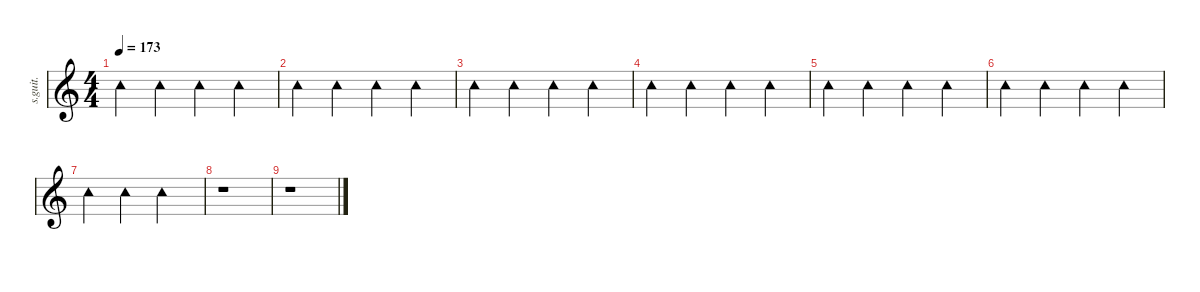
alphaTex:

\defaultSystemsLayout 4
\hideDynamics
\bracketExtendMode nobrackets
\track ("II (Extras)" "s.guit.") {instrument percussion}
\staff {score}
\articulation defaults
\ts (4 4)
\tempo 173
\clef g2
\ks c "Tambourine (hit)".4{lyrics (0 "") lyrics (1 "") lyrics (2 "") lyrics (3 "") lyrics (4 "") dy mf} "Tambourine (hit)".4{lyrics (0 "") lyrics (1 "") lyrics (2 "") lyrics (3 "") lyrics (4 "")} "Tambourine (hit)".4{lyrics (0 "") lyrics (1 "") lyrics (2 "") lyrics (3 "") lyrics (4 "")} "Tambourine (hit)".4{lyrics (0 "") lyrics (1 "") lyrics (2 "") lyrics (3 "") lyrics (4 "")}
|
"Tambourine (hit)".4{lyrics (0 "") lyrics (1 "") lyrics (2 "") lyrics (3 "") lyrics (4 "")} "Tambourine (hit)".4{lyrics (0 "") lyrics (1 "") lyrics (2 "") lyrics (3 "") lyrics (4 "")} "Tambourine (hit)".4{lyrics (0 "") lyrics (1 "") lyrics (2 "") lyrics (3 "") lyrics (4 "")} "Tambourine (hit)".4{lyrics (0 "") lyrics (1 "") lyrics (2 "") lyrics (3 "") lyrics (4 "")} |
"Tambourine (hit)".4{lyrics (0 "") lyrics (1 "") lyrics (2 "") lyrics (3 "") lyrics (4 "")} "Tambourine (hit)".4{lyrics (0 "") lyrics (1 "") lyrics (2 "") lyrics (3 "") lyrics (4 "")} "Tambourine (hit)".4{lyrics (0 "") lyrics (1 "") lyrics (2 "") lyrics (3 "") lyrics (4 "")} "Tambourine (hit)".4{lyrics (0 "") lyrics (1 "") lyrics (2 "") lyrics (3 "") lyrics (4 "")} |
"Tambourine (hit)".4{lyrics (0 "") lyrics (1 "") lyrics (2 "") lyrics (3 "") lyrics (4 "")} "Tambourine (hit)".4{lyrics (0 "") lyrics (1 "") lyrics (2 "") lyrics (3 "") lyrics (4 "")} "Tambourine (hit)".4{lyrics (0 "") lyrics (1 "") lyrics (2 "") lyrics (3 "") lyrics (4 "")} "Tambourine (hit)".4{lyrics (0 "") lyrics (1 "") lyrics (2 "") lyrics (3 "") lyrics (4 "")} |
"Tambourine (hit)".4{lyrics (0 "") lyrics (1 "") lyrics (2 "") lyrics (3 "") lyrics (4 "")} "Tambourine (hit)".4{lyrics (0 "") lyrics (1 "") lyrics (2 "") lyrics (3 "") lyrics (4 "")} "Tambourine (hit)".4{lyrics (0 "") lyrics (1 "") lyrics (2 "") lyrics (3 "") lyrics (4 "")} "Tambourine (hit)".4{lyrics (0 "") lyrics (1 "") lyrics (2 "") lyrics (3 "") lyrics (4 "")} |
"Tambourine (hit)".4{lyrics (0 "") lyrics (1 "") lyrics (2 "") lyrics (3 "") lyrics (4 "")} "Tambourine (hit)".4{lyrics (0 "") lyrics (1 "") lyrics (2 "") lyrics (3 "") lyrics (4 "")} "Tambourine (hit)".4{lyrics (0 "") lyrics (1 "") lyrics (2 "") lyrics (3 "") lyrics (4 "")} "Tambourine (hit)".4{lyrics (0 "") lyrics (1 "") lyrics (2 "") lyrics (3 "") lyrics (4 "")} |
"Tambourine (hit)".4{lyrics (0 "") lyrics (1 "") lyrics (2 "") lyrics (3 "") lyrics (4 "")} "Tambourine (hit)".4{lyrics (0 "") lyrics (1 "") lyrics (2 "") lyrics (3 "") lyrics (4 "")} "Tambourine (hit)".2{lyrics (0 "") lyrics (1 "") lyrics (2 "") lyrics (3 "") lyrics (4 "")} |
r.1 |
r.1
